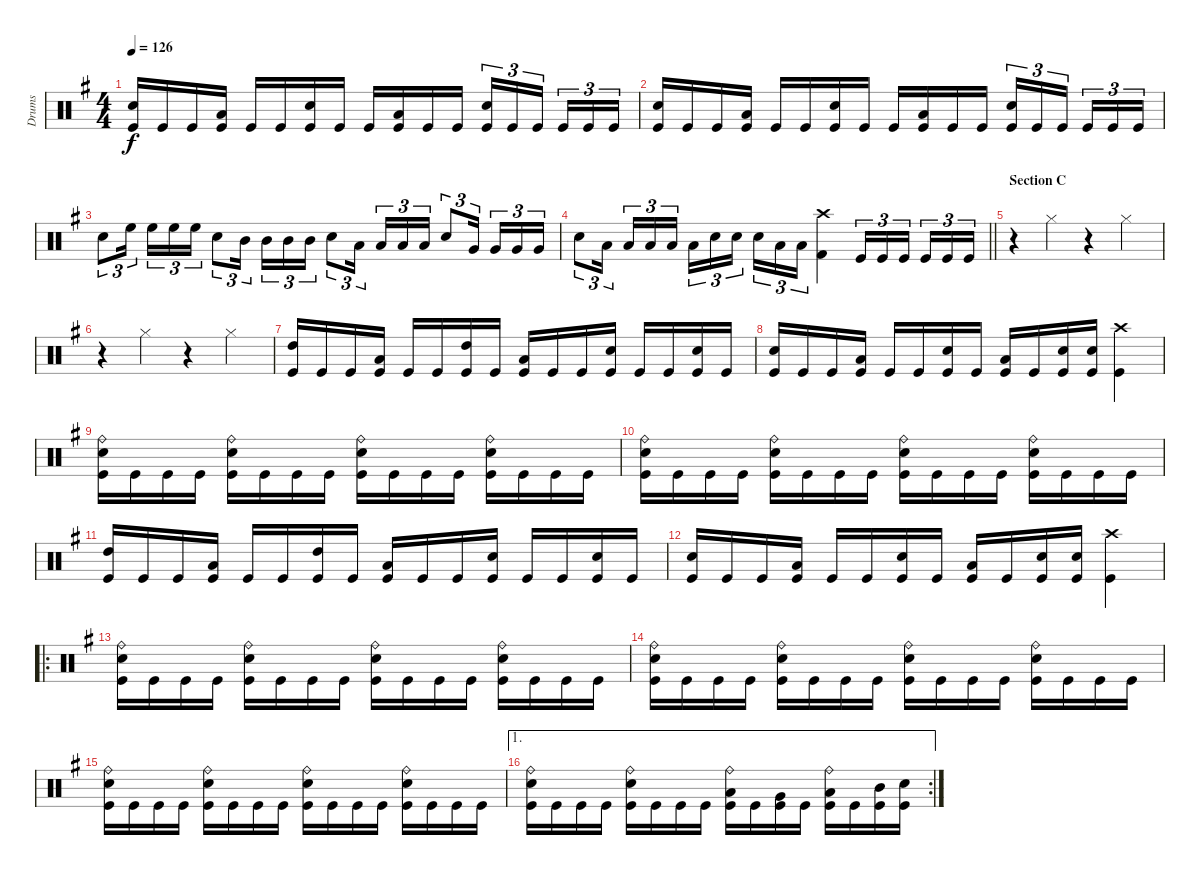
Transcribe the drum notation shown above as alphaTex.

\track ("Drums" "Drums") {instrument percussion}
\staff {score}
\articulation defaults
\ts (4 4)
\tempo 126
\clef neutral
\ks eminor
("Snare (hit) 2" "Kick (hit)").16{dy f} "Kick (hit)".16 "Kick (hit)".16 ("Low Floor Tom (hit)" "Kick (hit)").16 "Kick (hit)".16 "Kick (hit)".16 ("Snare (hit) 2" "Kick (hit)").16 "Kick (hit)".16 "Kick (hit)".16 ("Low Floor Tom (hit)" "Kick (hit)").16 "Kick (hit)".16 "Kick (hit)".16 ("Snare (hit) 2" "Kick (hit)").16{tu (3 2)} "Kick (hit)".16{tu (3 2)} "Kick (hit)".16{tu (3 2) beam splitsecondary} "Kick (hit)".16{tu (3 2)} "Kick (hit)".16{tu (3 2)} "Kick (hit)".16{tu (3 2)} |
("Snare (hit) 2" "Kick (hit)").16 "Kick (hit)".16 "Kick (hit)".16 ("Low Floor Tom (hit)" "Kick (hit)").16 "Kick (hit)".16 "Kick (hit)".16 ("Snare (hit) 2" "Kick (hit)").16 "Kick (hit)".16 "Kick (hit)".16 ("Low Floor Tom (hit)" "Kick (hit)").16 "Kick (hit)".16 "Kick (hit)".16 ("Snare (hit) 2" "Kick (hit)").16{tu (3 2)} "Kick (hit)".16{tu (3 2)} "Kick (hit)".16{tu (3 2) beam splitsecondary} "Kick (hit)".16{tu (3 2)} "Kick (hit)".16{tu (3 2)} "Kick (hit)".16{tu (3 2)} |
"Snare (hit) 2".8{tu (3 2)} "High Floor Tom (hit)".16{tu (3 2) beam splitsecondary} "High Floor Tom (hit)".16{tu (3 2)} "High Floor Tom (hit)".16{tu (3 2)} "High Floor Tom (hit)".16{tu (3 2)} "Snare (hit) 2".8{tu (3 2)} "Mid Tom (hit)".16{tu (3 2) beam splitsecondary} "Mid Tom (hit)".16{tu (3 2)} "Mid Tom (hit)".16{tu (3 2)} "Mid Tom (hit)".16{tu (3 2)} "Snare (hit) 2".8{tu (3 2)} "Low Tom (hit)".16{tu (3 2) beam splitsecondary} "Low Tom (hit)".16{tu (3 2)} "Low Tom (hit)".16{tu (3 2)} "Low Tom (hit)".16{tu (3 2)} "Snare (hit) 2".8{tu (3 2)} "Very Low Tom (hit)".16{tu (3 2) beam splitsecondary} "Very Low Tom (hit)".16{tu (3 2)} "Very Low Tom (hit)".16{tu (3 2)} "Very Low Tom (hit)".16{tu (3 2)} |
\barLineRight lightlight "Snare (hit) 2".8{tu (3 2)} "Low Floor Tom (hit)".16{tu (3 2) beam splitsecondary} "Low Floor Tom (hit)".16{tu (3 2)} "Low Floor Tom (hit)".16{tu (3 2)} "Low Floor Tom (hit)".16{tu (3 2)} "Low Floor Tom (hit)".16{tu (3 2)} "Snare (hit) 2".16{tu (3 2)} "Snare (hit) 2".16{tu (3 2) beam splitsecondary} "Snare (hit) 2".16{tu (3 2)} "Low Tom (hit)".16{tu (3 2)} "Low Tom (hit)".16{tu (3 2)}
("Crash high (hit)" "Kick (hit) 2").4 "Kick (hit)".16{tu (3 2)} "Kick (hit)".16{tu (3 2)} "Kick (hit)".16{tu (3 2) beam splitsecondary} "Kick (hit)".16{tu (3 2)} "Kick (hit)".16{tu (3 2)} "Kick (hit)".16{tu (3 2)} |
\section ("" "Section C")
r.4 "Hi-Hat (closed)".4 r.4 "Hi-Hat (closed)".4 |
r.4 "Hi-Hat (closed)".4 r.4 "Hi-Hat (closed)".4 |
("High Tom (hit)" "Kick (hit)").16 "Kick (hit)".16 "Kick (hit)".16 ("Low Tom (hit)" "Kick (hit)").16 "Kick (hit)".16 "Kick (hit)".16 ("High Tom (hit)" "Kick (hit)").16 "Kick (hit)".16 ("Low Tom (hit)" "Kick (hit)").16 "Kick (hit)".16 "Kick (hit)".16 ("Snare (hit) 2" "Kick (hit)").16 "Kick (hit)".16 "Kick (hit)".16 ("Snare (hit) 2" "Kick (hit)").16 "Kick (hit)".16 |
("Snare (hit) 2" "Kick (hit)").16 "Kick (hit)".16 "Kick (hit)".16 ("Low Floor Tom (hit)" "Kick (hit)").16 "Kick (hit)".16 "Kick (hit)".16 ("Snare (hit) 2" "Kick (hit)").16 "Kick (hit)".16 ("Low Floor Tom (hit)" "Kick (hit)").16 "Kick (hit)".16 ("Snare (hit) 2" "Kick (hit)").16 ("Snare (hit) 2" "Kick (hit)").16 ("Crash high (hit)" "Kick (hit)").4 |
("Ride (bell)" "Snare (hit) 2" "Kick (hit)").16 "Kick (hit)".16 "Kick (hit)".16 "Kick (hit)".16 ("Ride (bell)" "Snare (hit) 2" "Kick (hit)").16 "Kick (hit)".16 "Kick (hit)".16 "Kick (hit)".16 ("Ride (bell)" "Snare (hit) 2" "Kick (hit)").16 "Kick (hit)".16 "Kick (hit)".16 "Kick (hit)".16 ("Ride (bell)" "Snare (hit) 2" "Kick (hit)").16 "Kick (hit)".16 "Kick (hit)".16 "Kick (hit)".16 |
("Ride (bell)" "Snare (hit) 2" "Kick (hit)").16 "Kick (hit)".16 "Kick (hit)".16 "Kick (hit)".16 ("Ride (bell)" "Snare (hit) 2" "Kick (hit)").16 "Kick (hit)".16 "Kick (hit)".16 "Kick (hit)".16 ("Ride (bell)" "Snare (hit) 2" "Kick (hit)").16 "Kick (hit)".16 "Kick (hit)".16 "Kick (hit)".16 ("Ride (bell)" "Snare (hit) 2" "Kick (hit)").16 "Kick (hit)".16 "Kick (hit)".16 "Kick (hit)".16 |
("High Tom (hit)" "Kick (hit)").16 "Kick (hit)".16 "Kick (hit)".16 ("Low Tom (hit)" "Kick (hit)").16 "Kick (hit)".16 "Kick (hit)".16 ("High Tom (hit)" "Kick (hit)").16 "Kick (hit)".16 ("Low Tom (hit)" "Kick (hit)").16 "Kick (hit)".16 "Kick (hit)".16 ("Snare (hit) 2" "Kick (hit)").16 "Kick (hit)".16 "Kick (hit)".16 ("Snare (hit) 2" "Kick (hit)").16 "Kick (hit)".16 |
("Snare (hit) 2" "Kick (hit)").16 "Kick (hit)".16 "Kick (hit)".16 ("Low Floor Tom (hit)" "Kick (hit)").16 "Kick (hit)".16 "Kick (hit)".16 ("Snare (hit) 2" "Kick (hit)").16 "Kick (hit)".16 ("Low Floor Tom (hit)" "Kick (hit)").16 "Kick (hit)".16 ("Snare (hit) 2" "Kick (hit)").16 ("Snare (hit) 2" "Kick (hit)").16 ("Crash high (hit)" "Kick (hit)").4 |
\ro
("Ride (bell)" "Snare (hit) 2" "Kick (hit)").16 "Kick (hit)".16 "Kick (hit)".16 "Kick (hit)".16 ("Ride (bell)" "Snare (hit) 2" "Kick (hit)").16 "Kick (hit)".16 "Kick (hit)".16 "Kick (hit)".16 ("Ride (bell)" "Snare (hit) 2" "Kick (hit)").16 "Kick (hit)".16 "Kick (hit)".16 "Kick (hit)".16 ("Ride (bell)" "Snare (hit) 2" "Kick (hit)").16 "Kick (hit)".16 "Kick (hit)".16 "Kick (hit)".16 |
("Ride (bell)" "Snare (hit) 2" "Kick (hit)").16 "Kick (hit)".16 "Kick (hit)".16 "Kick (hit)".16 ("Ride (bell)" "Snare (hit) 2" "Kick (hit)").16 "Kick (hit)".16 "Kick (hit)".16 "Kick (hit)".16 ("Ride (bell)" "Snare (hit) 2" "Kick (hit)").16 "Kick (hit)".16 "Kick (hit)".16 "Kick (hit)".16 ("Ride (bell)" "Snare (hit) 2" "Kick (hit)").16 "Kick (hit)".16 "Kick (hit)".16 "Kick (hit)".16 |
("Ride (bell)" "Snare (hit) 2" "Kick (hit)").16 "Kick (hit)".16 "Kick (hit)".16 "Kick (hit)".16 ("Ride (bell)" "Snare (hit) 2" "Kick (hit)").16 "Kick (hit)".16 "Kick (hit)".16 "Kick (hit)".16 ("Ride (bell)" "Snare (hit) 2" "Kick (hit)").16 "Kick (hit)".16 "Kick (hit)".16 "Kick (hit)".16 ("Ride (bell)" "Snare (hit) 2" "Kick (hit)").16 "Kick (hit)".16 "Kick (hit)".16 "Kick (hit)".16 |
\ae 1
\rc 2
("Ride (bell)" "Snare (hit) 2" "Kick (hit)").16 "Kick (hit)".16 "Kick (hit)".16 "Kick (hit)".16 ("Ride (bell)" "Snare (hit) 2" "Kick (hit)").16 "Kick (hit)".16 "Kick (hit)".16 "Kick (hit)".16 ("Ride (bell)" "Low Floor Tom (hit)" "Kick (hit)").16 "Kick (hit)".16 ("Very Low Tom (hit)" "Kick (hit)").16 "Kick (hit)".16 ("Ride (bell)" "Low Tom (hit)" "Kick (hit)").16 "Kick (hit)".16 ("Mid Tom (hit)" "Kick (hit)").16 ("Snare (hit) 2" "Kick (hit)").16
